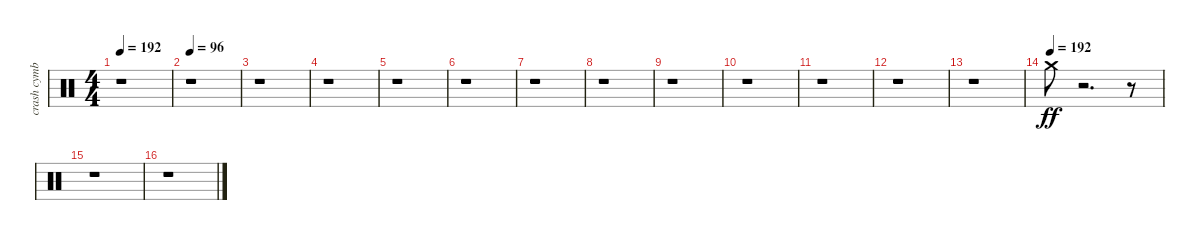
\track ("crash cymbal" "crash cymb") {instrument percussion}
\staff {score}
\articulation defaults
\ts (4 4)
\tempo 192
\clef neutral
\ks c
r.1{dy ff} |
\tempo 96
r.1 |
r.1 |
r.1 |
r.1 |
r.1 |
r.1 |
r.1 |
r.1 |
r.1 |
r.1 |
r.1 |
r.1 |
\tempo (192)
"Crash medium (hit)".8 r.2{d} r.8 |
r.1 |
r.1
